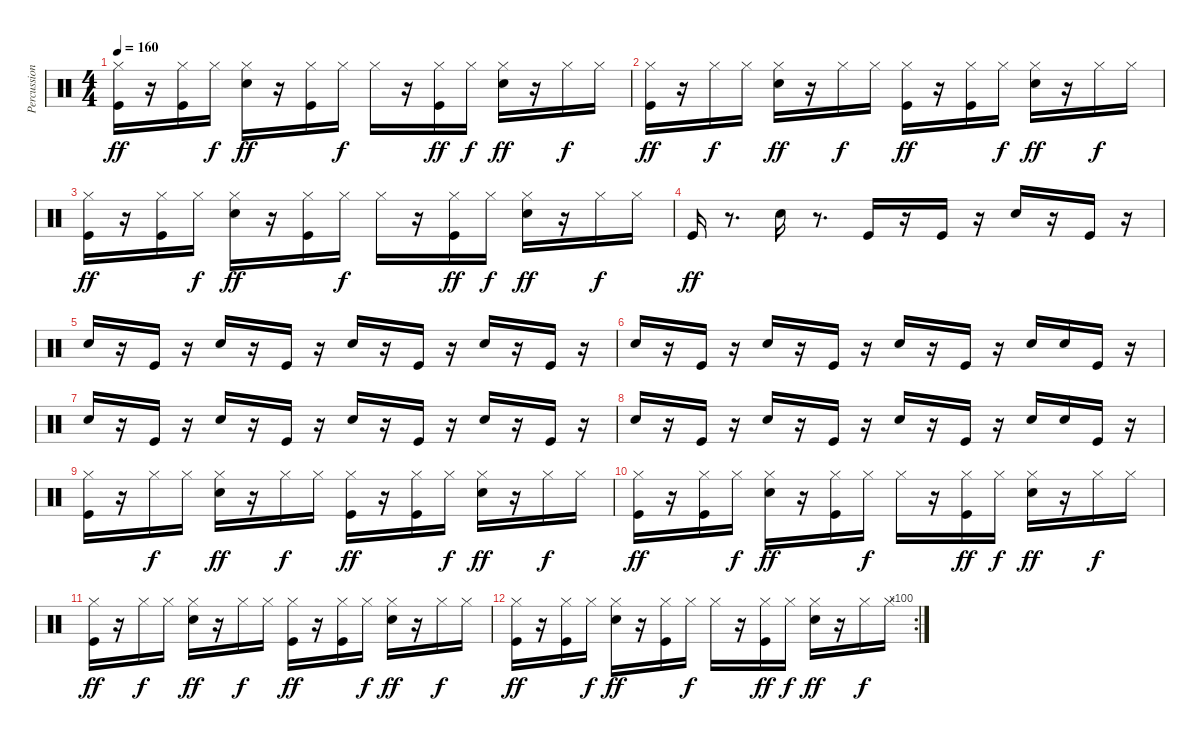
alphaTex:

\track ("Percussion" "Percussion") {instrument percussion}
\staff {score}
\articulation defaults
\ts (4 4)
\tempo 160
\clef neutral
\ks c
("Kick (hit)" "Hi-Hat (closed)").16{dy ff} r.16 ("Kick (hit)" "Hi-Hat (closed)").16 "Hi-Hat (closed)".16{dy f} ("Snare (hit) 2" "Hi-Hat (closed)").16{dy ff} r.16 ("Kick (hit)" "Hi-Hat (closed)").16 "Hi-Hat (closed)".16{dy f} "Hi-Hat (closed)".16 r.16 ("Kick (hit)" "Hi-Hat (closed)").16{dy ff} "Hi-Hat (closed)".16{dy f} ("Snare (hit) 2" "Hi-Hat (closed)").16{dy ff} r.16 "Hi-Hat (closed)".16{dy f} "Hi-Hat (closed)".16 |
("Kick (hit)" "Hi-Hat (closed)").16{dy ff} r.16 "Hi-Hat (closed)".16{dy f} "Hi-Hat (closed)".16 ("Snare (hit) 2" "Hi-Hat (closed)").16{dy ff} r.16 "Hi-Hat (closed)".16{dy f} "Hi-Hat (closed)".16 ("Kick (hit)" "Hi-Hat (closed)").16{dy ff} r.16 ("Kick (hit)" "Hi-Hat (closed)").16 "Hi-Hat (closed)".16{dy f} ("Snare (hit) 2" "Hi-Hat (closed)").16{dy ff} r.16 "Hi-Hat (closed)".16{dy f} "Hi-Hat (closed)".16 |
("Kick (hit)" "Hi-Hat (closed)").16{dy ff} r.16 ("Kick (hit)" "Hi-Hat (closed)").16 "Hi-Hat (closed)".16{dy f} ("Snare (hit) 2" "Hi-Hat (closed)").16{dy ff} r.16 ("Kick (hit)" "Hi-Hat (closed)").16 "Hi-Hat (closed)".16{dy f} "Hi-Hat (closed)".16 r.16 ("Kick (hit)" "Hi-Hat (closed)").16{dy ff} "Hi-Hat (closed)".16{dy f} ("Snare (hit) 2" "Hi-Hat (closed)").16{dy ff} r.16 "Hi-Hat (closed)".16{dy f} "Hi-Hat (closed)".16 |
"Kick (hit)".16{dy ff} r.8{d} "Snare (hit) 2".16 r.8{d} "Kick (hit)".16 r.16 "Kick (hit)".16 r.16 "Snare (hit) 2".16 r.16 "Kick (hit)".16 r.16 |
"Snare (hit) 2".16 r.16 "Kick (hit)".16 r.16 "Snare (hit) 2".16 r.16 "Kick (hit)".16 r.16 "Snare (hit) 2".16 r.16 "Kick (hit)".16 r.16 "Snare (hit) 2".16 r.16 "Kick (hit)".16 r.16 |
"Snare (hit) 2".16 r.16 "Kick (hit)".16 r.16 "Snare (hit) 2".16 r.16 "Kick (hit)".16 r.16 "Snare (hit) 2".16 r.16 "Kick (hit)".16 r.16 "Snare (hit) 2".16 "Snare (hit) 2".16 "Kick (hit)".16 r.16 |
"Snare (hit) 2".16 r.16 "Kick (hit)".16 r.16 "Snare (hit) 2".16 r.16 "Kick (hit)".16 r.16 "Snare (hit) 2".16 r.16 "Kick (hit)".16 r.16 "Snare (hit) 2".16 r.16 "Kick (hit)".16 r.16 |
"Snare (hit) 2".16 r.16 "Kick (hit)".16 r.16 "Snare (hit) 2".16 r.16 "Kick (hit)".16 r.16 "Snare (hit) 2".16 r.16 "Kick (hit)".16 r.16 "Snare (hit) 2".16 "Snare (hit) 2".16 "Kick (hit)".16 r.16 |
("Kick (hit)" "Hi-Hat (closed)").16 r.16 "Hi-Hat (closed)".16{dy f} "Hi-Hat (closed)".16 ("Snare (hit) 2" "Hi-Hat (closed)").16{dy ff} r.16 "Hi-Hat (closed)".16{dy f} "Hi-Hat (closed)".16 ("Kick (hit)" "Hi-Hat (closed)").16{dy ff} r.16 ("Kick (hit)" "Hi-Hat (closed)").16 "Hi-Hat (closed)".16{dy f} ("Snare (hit) 2" "Hi-Hat (closed)").16{dy ff} r.16 "Hi-Hat (closed)".16{dy f} "Hi-Hat (closed)".16 |
("Kick (hit)" "Hi-Hat (closed)").16{dy ff} r.16 ("Kick (hit)" "Hi-Hat (closed)").16 "Hi-Hat (closed)".16{dy f} ("Snare (hit) 2" "Hi-Hat (closed)").16{dy ff} r.16 ("Kick (hit)" "Hi-Hat (closed)").16 "Hi-Hat (closed)".16{dy f} "Hi-Hat (closed)".16 r.16 ("Kick (hit)" "Hi-Hat (closed)").16{dy ff} "Hi-Hat (closed)".16{dy f} ("Snare (hit) 2" "Hi-Hat (closed)").16{dy ff} r.16 "Hi-Hat (closed)".16{dy f} "Hi-Hat (closed)".16 |
("Kick (hit)" "Hi-Hat (closed)").16{dy ff} r.16 "Hi-Hat (closed)".16{dy f} "Hi-Hat (closed)".16 ("Snare (hit) 2" "Hi-Hat (closed)").16{dy ff} r.16 "Hi-Hat (closed)".16{dy f} "Hi-Hat (closed)".16 ("Kick (hit)" "Hi-Hat (closed)").16{dy ff} r.16 ("Kick (hit)" "Hi-Hat (closed)").16 "Hi-Hat (closed)".16{dy f} ("Snare (hit) 2" "Hi-Hat (closed)").16{dy ff} r.16 "Hi-Hat (closed)".16{dy f} "Hi-Hat (closed)".16 |
\rc 100
("Kick (hit)" "Hi-Hat (closed)").16{dy ff} r.16 ("Kick (hit)" "Hi-Hat (closed)").16 "Hi-Hat (closed)".16{dy f} ("Snare (hit) 2" "Hi-Hat (closed)").16{dy ff} r.16 ("Kick (hit)" "Hi-Hat (closed)").16 "Hi-Hat (closed)".16{dy f} "Hi-Hat (closed)".16 r.16 ("Kick (hit)" "Hi-Hat (closed)").16{dy ff} "Hi-Hat (closed)".16{dy f} ("Snare (hit) 2" "Hi-Hat (closed)").16{dy ff} r.16 "Hi-Hat (closed)".16{dy f} "Hi-Hat (closed)".16
